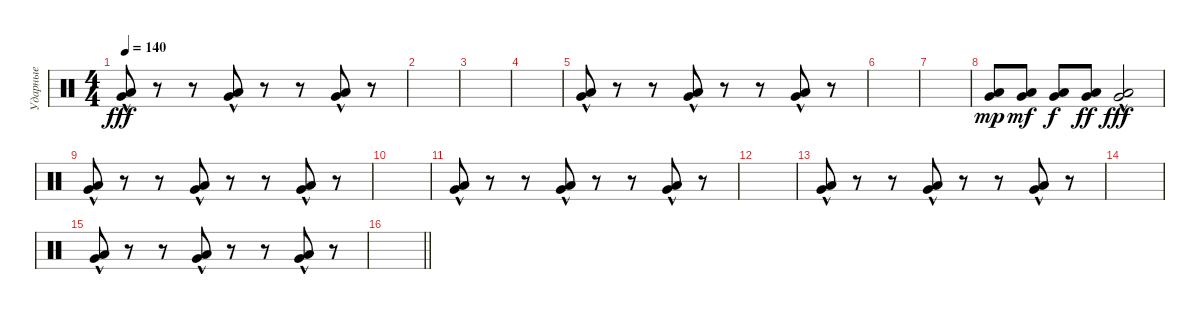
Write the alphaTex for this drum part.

\track ("Ударные" "Ударные") {instrument percussion}
\staff {score}
\articulation defaults
\ts (4 4)
\tempo 140
\clef neutral
\ks c
("Low Tom (hit)"{hac} "Very Low Tom (hit)"{hac}).8{dy fff} r.8 r.8 ("Low Tom (hit)"{hac} "Very Low Tom (hit)"{hac}).8 r.8 r.8 ("Low Tom (hit)"{hac} "Very Low Tom (hit)"{hac}).8 r.8 |
|
|
|
("Low Tom (hit)"{hac} "Very Low Tom (hit)"{hac}).8 r.8 r.8 ("Low Tom (hit)"{hac} "Very Low Tom (hit)"{hac}).8 r.8 r.8 ("Low Tom (hit)"{hac} "Very Low Tom (hit)"{hac}).8 r.8 |
|
|
("Very Low Tom (hit)" "Low Tom (hit)").8{dy mp} ("Very Low Tom (hit)" "Low Tom (hit)").8{dy mf} ("Very Low Tom (hit)" "Low Tom (hit)").8{dy f} ("Very Low Tom (hit)" "Low Tom (hit)").8{dy ff} ("Very Low Tom (hit)"{hac} "Low Tom (hit)"{hac}).2{dy fff} |
("Low Tom (hit)"{hac} "Very Low Tom (hit)"{hac}).8 r.8 r.8 ("Low Tom (hit)"{hac} "Very Low Tom (hit)"{hac}).8 r.8 r.8 ("Low Tom (hit)"{hac} "Very Low Tom (hit)"{hac}).8 r.8 |
|
("Low Tom (hit)"{hac} "Very Low Tom (hit)"{hac}).8 r.8 r.8 ("Low Tom (hit)"{hac} "Very Low Tom (hit)"{hac}).8 r.8 r.8 ("Low Tom (hit)"{hac} "Very Low Tom (hit)"{hac}).8 r.8 |
|
("Low Tom (hit)"{hac} "Very Low Tom (hit)"{hac}).8 r.8 r.8 ("Low Tom (hit)"{hac} "Very Low Tom (hit)"{hac}).8 r.8 r.8 ("Low Tom (hit)"{hac} "Very Low Tom (hit)"{hac}).8 r.8 |
|
("Low Tom (hit)"{hac} "Very Low Tom (hit)"{hac}).8 r.8 r.8 ("Low Tom (hit)"{hac} "Very Low Tom (hit)"{hac}).8 r.8 r.8 ("Low Tom (hit)"{hac} "Very Low Tom (hit)"{hac}).8 r.8 |
\barLineRight lightlight
